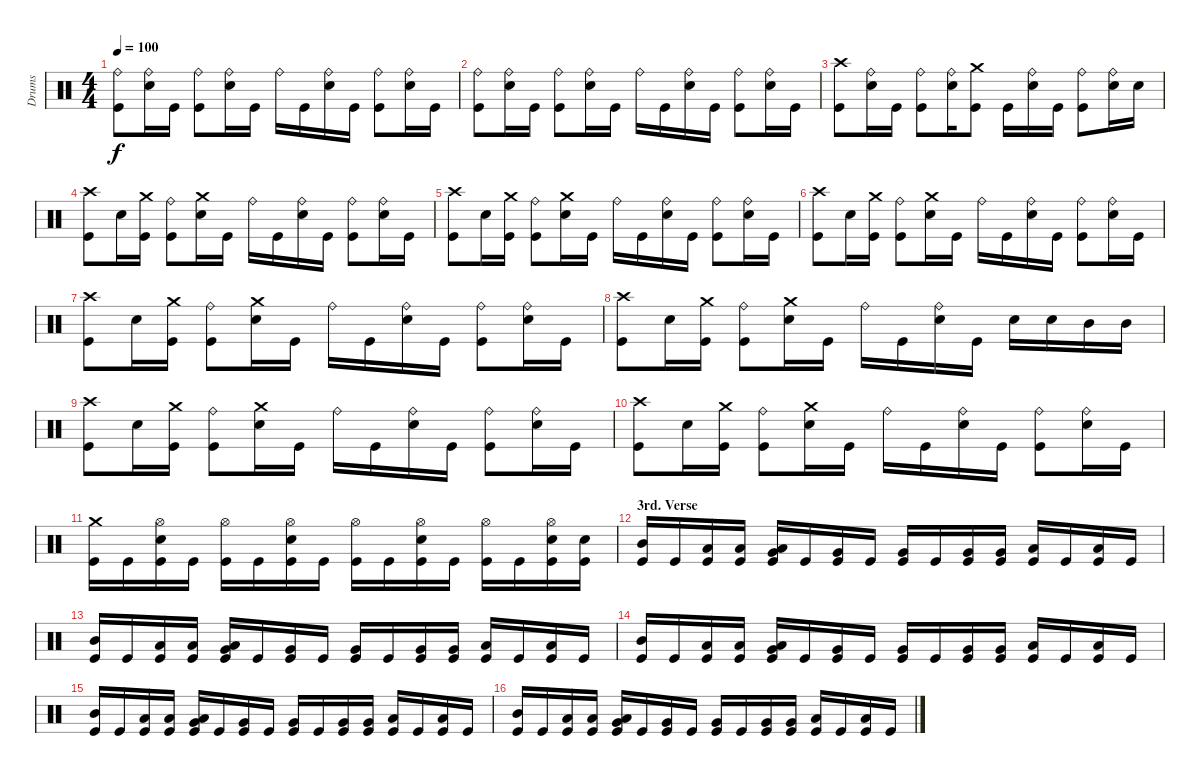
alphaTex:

\track ("Drums" "Drums") {instrument percussion}
\staff {score}
\articulation defaults
\ts (4 4)
\tempo 100
\clef neutral
\ks c
("Ride (bell)" "Kick (hit)").8{dy f} ("Ride (bell)" "Electric Snare (hit)").16 "Kick (hit)".16 ("Ride (bell)" "Kick (hit)").8 ("Ride (bell)" "Electric Snare (hit)").16 "Kick (hit)".16 "Ride (bell)".16 "Kick (hit)".16 ("Ride (bell)" "Electric Snare (hit)").16 "Kick (hit)".16 ("Ride (bell)" "Kick (hit)").8 ("Ride (bell)" "Electric Snare (hit)").16 "Kick (hit)".16 |
("Ride (bell)" "Kick (hit)").8 ("Ride (bell)" "Electric Snare (hit)").16 "Kick (hit)".16 ("Ride (bell)" "Kick (hit)").8 ("Ride (bell)" "Electric Snare (hit)").16 "Kick (hit)".16 "Ride (bell)".16 "Kick (hit)".16 ("Ride (bell)" "Electric Snare (hit)").16 "Kick (hit)".16 ("Ride (bell)" "Kick (hit)").8 ("Ride (bell)" "Electric Snare (hit)").16 "Kick (hit)".16 |
("Crash high (hit)" "Kick (hit)").8 ("Ride (bell)" "Electric Snare (hit)").16 "Kick (hit)".16 ("Ride (bell)" "Kick (hit)").8 ("Ride (bell)" "Electric Snare (hit)").16 ("Crash medium (hit)" "Kick (hit)").8 "Kick (hit)".16 ("Ride (bell)" "Electric Snare (hit)").16 "Kick (hit)".16 ("Ride (bell)" "Kick (hit)").8 ("Ride (bell)" "Electric Snare (hit)").16 "Electric Snare (hit)".16 |
("Crash high (hit)" "Kick (hit)").8 "Electric Snare (hit)".16 ("Crash medium (hit)" "Kick (hit)").16 ("Ride (bell)" "Kick (hit)").8 ("Crash medium (hit)" "Electric Snare (hit)").16 "Kick (hit)".16 "Ride (bell)".16 "Kick (hit)".16 ("Ride (bell)" "Electric Snare (hit)").16 "Kick (hit)".16 ("Ride (bell)" "Kick (hit)").8 ("Ride (bell)" "Electric Snare (hit)").16 "Kick (hit)".16 |
("Crash high (hit)" "Kick (hit)").8 "Electric Snare (hit)".16 ("Crash medium (hit)" "Kick (hit)").16 ("Ride (bell)" "Kick (hit)").8 ("Crash medium (hit)" "Electric Snare (hit)").16 "Kick (hit)".16 "Ride (bell)".16 "Kick (hit)".16 ("Ride (bell)" "Electric Snare (hit)").16 "Kick (hit)".16 ("Ride (bell)" "Kick (hit)").8 ("Ride (bell)" "Electric Snare (hit)").16 "Kick (hit)".16 |
("Crash high (hit)" "Kick (hit)").8 "Electric Snare (hit)".16 ("Crash medium (hit)" "Kick (hit)").16 ("Ride (bell)" "Kick (hit)").8 ("Crash medium (hit)" "Electric Snare (hit)").16 "Kick (hit)".16 "Ride (bell)".16 "Kick (hit)".16 ("Ride (bell)" "Electric Snare (hit)").16 "Kick (hit)".16 ("Ride (bell)" "Kick (hit)").8 ("Ride (bell)" "Electric Snare (hit)").16 "Kick (hit)".16 |
("Crash high (hit)" "Kick (hit)").8 "Electric Snare (hit)".16 ("Crash medium (hit)" "Kick (hit)").16 ("Ride (bell)" "Kick (hit)").8 ("Crash medium (hit)" "Electric Snare (hit)").16 "Kick (hit)".16 "Ride (bell)".16 "Kick (hit)".16 ("Ride (bell)" "Electric Snare (hit)").16 "Kick (hit)".16 ("Ride (bell)" "Kick (hit)").8 ("Ride (bell)" "Electric Snare (hit)").16 "Kick (hit)".16 |
("Crash high (hit)" "Kick (hit)").8 "Electric Snare (hit)".16 ("Crash medium (hit)" "Kick (hit)").16 ("Ride (bell)" "Kick (hit)").8 ("Crash medium (hit)" "Electric Snare (hit)").16 "Kick (hit)".16 "Ride (bell)".16 "Kick (hit)".16 ("Ride (bell)" "Electric Snare (hit)").16 "Kick (hit)".16 "Electric Snare (hit)".16 "Electric Snare (hit)".16 "Mid Tom (hit)".16 "Mid Tom (hit)".16 |
("Crash high (hit)" "Kick (hit)").8 "Electric Snare (hit)".16 ("Crash medium (hit)" "Kick (hit)").16 ("Ride (bell)" "Kick (hit)").8 ("Crash medium (hit)" "Electric Snare (hit)").16 "Kick (hit)".16 "Ride (bell)".16 "Kick (hit)".16 ("Ride (bell)" "Electric Snare (hit)").16 "Kick (hit)".16 ("Ride (bell)" "Kick (hit)").8 ("Ride (bell)" "Electric Snare (hit)").16 "Kick (hit)".16 |
("Crash high (hit)" "Kick (hit)").8 "Electric Snare (hit)".16 ("Crash medium (hit)" "Kick (hit)").16 ("Ride (bell)" "Kick (hit)").8 ("Crash medium (hit)" "Electric Snare (hit)").16 "Kick (hit)".16 "Ride (bell)".16 "Kick (hit)".16 ("Ride (bell)" "Electric Snare (hit)").16 "Kick (hit)".16 ("Ride (bell)" "Kick (hit)").8 ("Ride (bell)" "Electric Snare (hit)").16 "Kick (hit)".16 |
("Crash medium (hit)" "Kick (hit)").16 "Kick (hit)".16 ("Hi-Hat (open)" "Electric Snare (hit)" "Kick (hit)").16 "Kick (hit)".16 ("Hi-Hat (open)" "Kick (hit)").16 "Kick (hit)".16 ("Hi-Hat (open)" "Electric Snare (hit)" "Kick (hit)").16 "Kick (hit)".16 ("Hi-Hat (open)" "Kick (hit)").16 "Kick (hit)".16 ("Hi-Hat (open)" "Electric Snare (hit)" "Kick (hit)").16 "Kick (hit)".16 ("Hi-Hat (open)" "Kick (hit)").16 "Kick (hit)".16 ("Hi-Hat (open)" "Electric Snare (hit)" "Kick (hit)").16 ("Electric Snare (hit)" "Kick (hit)").16 |
\section ("" "3rd. Verse")
("Mid Tom (hit)" "Kick (hit)").16 "Kick (hit)".16 ("Low Tom (hit)" "Kick (hit)").16 ("Low Tom (hit)" "Kick (hit)").16 ("Very Low Tom (hit)" "Low Tom (hit)" "Kick (hit)").16 "Kick (hit)".16 ("Very Low Tom (hit)" "Kick (hit)").16 "Kick (hit)".16 ("Very Low Tom (hit)" "Kick (hit)").16 "Kick (hit)".16 ("Very Low Tom (hit)" "Kick (hit)").16 ("Very Low Tom (hit)" "Kick (hit)").16 ("Low Floor Tom (hit)" "Kick (hit)").16 "Kick (hit)".16 ("Low Floor Tom (hit)" "Kick (hit)").16 "Kick (hit)".16 |
("Mid Tom (hit)" "Kick (hit)").16 "Kick (hit)".16 ("Low Tom (hit)" "Kick (hit)").16 ("Low Tom (hit)" "Kick (hit)").16 ("Very Low Tom (hit)" "Low Tom (hit)" "Kick (hit)").16 "Kick (hit)".16 ("Very Low Tom (hit)" "Kick (hit)").16 "Kick (hit)".16 ("Very Low Tom (hit)" "Kick (hit)").16 "Kick (hit)".16 ("Very Low Tom (hit)" "Kick (hit)").16 ("Very Low Tom (hit)" "Kick (hit)").16 ("Low Floor Tom (hit)" "Kick (hit)").16 "Kick (hit)".16 ("Low Floor Tom (hit)" "Kick (hit)").16 "Kick (hit)".16 |
("Mid Tom (hit)" "Kick (hit)").16 "Kick (hit)".16 ("Low Tom (hit)" "Kick (hit)").16 ("Low Tom (hit)" "Kick (hit)").16 ("Very Low Tom (hit)" "Low Tom (hit)" "Kick (hit)").16 "Kick (hit)".16 ("Very Low Tom (hit)" "Kick (hit)").16 "Kick (hit)".16 ("Very Low Tom (hit)" "Kick (hit)").16 "Kick (hit)".16 ("Very Low Tom (hit)" "Kick (hit)").16 ("Very Low Tom (hit)" "Kick (hit)").16 ("Low Floor Tom (hit)" "Kick (hit)").16 "Kick (hit)".16 ("Low Floor Tom (hit)" "Kick (hit)").16 "Kick (hit)".16 |
("Mid Tom (hit)" "Kick (hit)").16 "Kick (hit)".16 ("Low Tom (hit)" "Kick (hit)").16 ("Low Tom (hit)" "Kick (hit)").16 ("Very Low Tom (hit)" "Low Tom (hit)" "Kick (hit)").16 "Kick (hit)".16 ("Very Low Tom (hit)" "Kick (hit)").16 "Kick (hit)".16 ("Very Low Tom (hit)" "Kick (hit)").16 "Kick (hit)".16 ("Very Low Tom (hit)" "Kick (hit)").16 ("Very Low Tom (hit)" "Kick (hit)").16 ("Low Floor Tom (hit)" "Kick (hit)").16 "Kick (hit)".16 ("Low Floor Tom (hit)" "Kick (hit)").16 "Kick (hit)".16 |
("Mid Tom (hit)" "Kick (hit)").16 "Kick (hit)".16 ("Low Tom (hit)" "Kick (hit)").16 ("Low Tom (hit)" "Kick (hit)").16 ("Very Low Tom (hit)" "Low Tom (hit)" "Kick (hit)").16 "Kick (hit)".16 ("Very Low Tom (hit)" "Kick (hit)").16 "Kick (hit)".16 ("Very Low Tom (hit)" "Kick (hit)").16 "Kick (hit)".16 ("Very Low Tom (hit)" "Kick (hit)").16 ("Very Low Tom (hit)" "Kick (hit)").16 ("Low Floor Tom (hit)" "Kick (hit)").16 "Kick (hit)".16 ("Low Floor Tom (hit)" "Kick (hit)").16 "Kick (hit)".16
